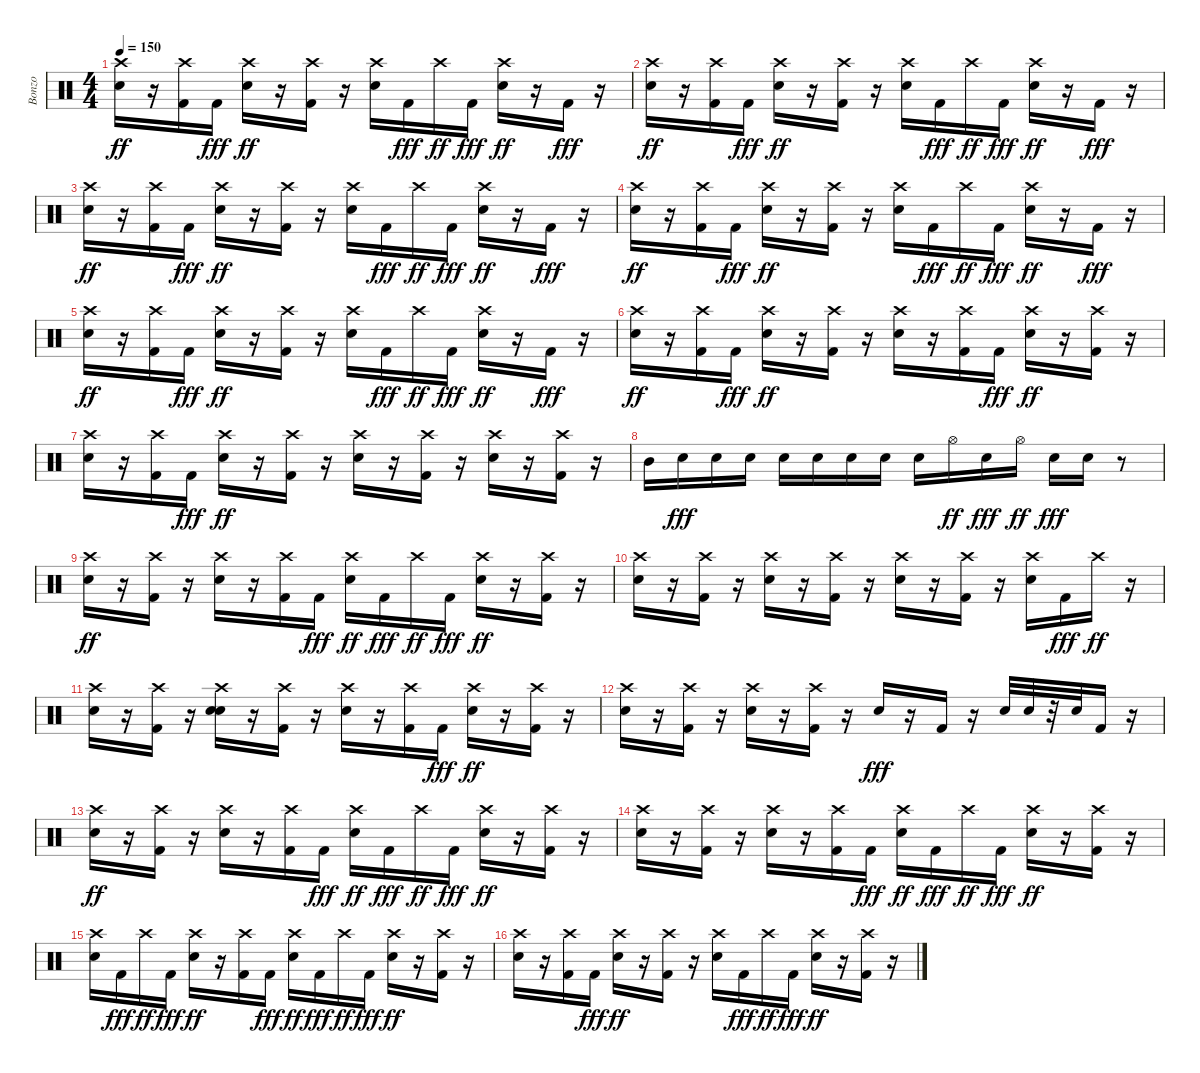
\track ("Bonzo" "Bonzo") {instrument percussion}
\staff {score}
\articulation defaults
\ts (4 4)
\tempo 150
\clef neutral
\ks c
("Snare (hit) 2" "Crash high (hit)").16{dy ff} r.16 ("Kick (hit) 2" "Crash high (hit)").16 "Kick (hit) 2".16{dy fff} ("Snare (hit) 2" "Crash high (hit)").16{dy ff} r.16 ("Kick (hit) 2" "Crash high (hit)").16 r.16 ("Snare (hit) 2" "Crash high (hit)").16 "Kick (hit) 2".16{dy fff} "Crash high (hit)".16{dy ff} "Kick (hit) 2".16{dy fff} ("Snare (hit) 2" "Crash high (hit)").16{dy ff} r.16 "Kick (hit) 2".16{dy fff} r.16 |
("Snare (hit) 2" "Crash high (hit)").16{dy ff} r.16 ("Kick (hit) 2" "Crash high (hit)").16 "Kick (hit) 2".16{dy fff} ("Snare (hit) 2" "Crash high (hit)").16{dy ff} r.16 ("Kick (hit) 2" "Crash high (hit)").16 r.16 ("Snare (hit) 2" "Crash high (hit)").16 "Kick (hit) 2".16{dy fff} "Crash high (hit)".16{dy ff} "Kick (hit) 2".16{dy fff} ("Snare (hit) 2" "Crash high (hit)").16{dy ff} r.16 "Kick (hit) 2".16{dy fff} r.16 |
("Snare (hit) 2" "Crash high (hit)").16{dy ff} r.16 ("Kick (hit) 2" "Crash high (hit)").16 "Kick (hit) 2".16{dy fff} ("Snare (hit) 2" "Crash high (hit)").16{dy ff} r.16 ("Kick (hit) 2" "Crash high (hit)").16 r.16 ("Snare (hit) 2" "Crash high (hit)").16 "Kick (hit) 2".16{dy fff} "Crash high (hit)".16{dy ff} "Kick (hit) 2".16{dy fff} ("Snare (hit) 2" "Crash high (hit)").16{dy ff} r.16 "Kick (hit) 2".16{dy fff} r.16 |
("Snare (hit) 2" "Crash high (hit)").16{dy ff} r.16 ("Kick (hit) 2" "Crash high (hit)").16 "Kick (hit) 2".16{dy fff} ("Snare (hit) 2" "Crash high (hit)").16{dy ff} r.16 ("Kick (hit) 2" "Crash high (hit)").16 r.16 ("Snare (hit) 2" "Crash high (hit)").16 "Kick (hit) 2".16{dy fff} "Crash high (hit)".16{dy ff} "Kick (hit) 2".16{dy fff} ("Snare (hit) 2" "Crash high (hit)").16{dy ff} r.16 "Kick (hit) 2".16{dy fff} r.16 |
("Snare (hit) 2" "Crash high (hit)").16{dy ff} r.16 ("Kick (hit) 2" "Crash high (hit)").16 "Kick (hit) 2".16{dy fff} ("Snare (hit) 2" "Crash high (hit)").16{dy ff} r.16 ("Kick (hit) 2" "Crash high (hit)").16 r.16 ("Snare (hit) 2" "Crash high (hit)").16 "Kick (hit) 2".16{dy fff} "Crash high (hit)".16{dy ff} "Kick (hit) 2".16{dy fff} ("Snare (hit) 2" "Crash high (hit)").16{dy ff} r.16 "Kick (hit) 2".16{dy fff} r.16 |
("Snare (hit) 2" "Crash high (hit)").16{dy ff} r.16 ("Kick (hit) 2" "Crash high (hit)").16 "Kick (hit) 2".16{dy fff} ("Snare (hit) 2" "Crash high (hit)").16{dy ff} r.16 ("Kick (hit) 2" "Crash high (hit)").16 r.16 ("Snare (hit) 2" "Crash high (hit)").16 r.16 ("Kick (hit) 2" "Crash high (hit)").16 "Kick (hit) 2".16{dy fff} ("Snare (hit) 2" "Crash high (hit)").16{dy ff} r.16 ("Kick (hit) 2" "Crash high (hit)").16 r.16 |
("Snare (hit) 2" "Crash high (hit)").16 r.16 ("Kick (hit) 2" "Crash high (hit)").16 "Kick (hit) 2".16{dy fff} ("Snare (hit) 2" "Crash high (hit)").16{dy ff} r.16 ("Kick (hit) 2" "Crash high (hit)").16 r.16 ("Snare (hit) 2" "Crash high (hit)").16 r.16 ("Kick (hit) 2" "Crash high (hit)").16 r.16 ("Snare (hit) 2" "Crash high (hit)").16 r.16 ("Kick (hit) 2" "Crash high (hit)").16 r.16 |
"Mid Tom (hit)".16 "Snare (hit) 2".16{dy fff} "Snare (hit) 2".16 "Snare (hit) 2".16 "Snare (hit) 2".16 "Snare (hit) 2".16 "Snare (hit) 2".16 "Snare (hit) 2".16 "Snare (hit) 2".16 "Hi-Hat (open)".16{dy ff} "Snare (hit) 2".16{dy fff} "Hi-Hat (open)".16{dy ff} "Snare (hit) 2".16{dy fff} "Snare (hit) 2".16 r.8 |
("Snare (hit) 2" "Crash high (hit)").16{dy ff} r.16 ("Kick (hit) 2" "Crash high (hit)").16 r.16 ("Snare (hit) 2" "Crash high (hit)").16 r.16 ("Kick (hit) 2" "Crash high (hit)").16 "Kick (hit) 2".16{dy fff} ("Snare (hit) 2" "Crash high (hit)").16{dy ff} "Kick (hit) 2".16{dy fff} "Crash high (hit)".16{dy ff} "Kick (hit) 2".16{dy fff} ("Snare (hit) 2" "Crash high (hit)").16{dy ff} r.16 ("Kick (hit) 2" "Crash high (hit)").16 r.16 |
("Snare (hit) 2" "Crash high (hit)").16 r.16 ("Kick (hit) 2" "Crash high (hit)").16 r.16 ("Snare (hit) 2" "Crash high (hit)").16 r.16 ("Kick (hit) 2" "Crash high (hit)").16 r.16 ("Snare (hit) 2" "Crash high (hit)").16 r.16 ("Kick (hit) 2" "Crash high (hit)").16 r.16 ("Snare (hit) 2" "Crash high (hit)").16 "Kick (hit) 2".16{dy fff} "Crash high (hit)".16{dy ff} r.16 |
("Snare (hit) 2" "Crash high (hit)").16 r.16 ("Kick (hit) 2" "Crash high (hit)").16 r.16 ("Snare (hit)" "Snare (hit) 2" "Crash high (hit)").16 r.16 ("Kick (hit) 2" "Crash high (hit)").16 r.16 ("Snare (hit) 2" "Crash high (hit)").16 r.16 ("Kick (hit) 2" "Crash high (hit)").16 "Kick (hit) 2".16{dy fff} ("Snare (hit) 2" "Crash high (hit)").16{dy ff} r.16 ("Kick (hit) 2" "Crash high (hit)").16 r.16 |
("Snare (hit) 2" "Crash high (hit)").16 r.16 ("Kick (hit) 2" "Crash high (hit)").16 r.16 ("Snare (hit) 2" "Crash high (hit)").16 r.16 ("Kick (hit) 2" "Crash high (hit)").16 r.16 "Snare (hit) 2".16{dy fff} r.16 "Kick (hit) 2".16 r.16 "Snare (hit) 2".32 "Snare (hit) 2".32 r.32 "Snare (hit) 2".32 "Kick (hit) 2".16 r.16 |
("Snare (hit) 2" "Crash high (hit)").16{dy ff} r.16 ("Kick (hit) 2" "Crash high (hit)").16 r.16 ("Snare (hit) 2" "Crash high (hit)").16 r.16 ("Kick (hit) 2" "Crash high (hit)").16 "Kick (hit) 2".16{dy fff} ("Snare (hit) 2" "Crash high (hit)").16{dy ff} "Kick (hit) 2".16{dy fff} "Crash high (hit)".16{dy ff} "Kick (hit) 2".16{dy fff} ("Snare (hit) 2" "Crash high (hit)").16{dy ff} r.16 ("Kick (hit) 2" "Crash high (hit)").16 r.16 |
("Snare (hit) 2" "Crash high (hit)").16 r.16 ("Kick (hit) 2" "Crash high (hit)").16 r.16 ("Snare (hit) 2" "Crash high (hit)").16 r.16 ("Kick (hit) 2" "Crash high (hit)").16 "Kick (hit) 2".16{dy fff} ("Snare (hit) 2" "Crash high (hit)").16{dy ff} "Kick (hit) 2".16{dy fff} "Crash high (hit)".16{dy ff} "Kick (hit) 2".16{dy fff} ("Snare (hit) 2" "Crash high (hit)").16{dy ff} r.16 ("Kick (hit) 2" "Crash high (hit)").16 r.16 |
("Snare (hit) 2" "Crash high (hit)").16 "Kick (hit) 2".16{dy fff} "Crash high (hit)".16{dy ff} "Kick (hit) 2".16{dy fff} ("Snare (hit) 2" "Crash high (hit)").16{dy ff} r.16 ("Kick (hit) 2" "Crash high (hit)").16 "Kick (hit) 2".16{dy fff} ("Snare (hit) 2" "Crash high (hit)").16{dy ff} "Kick (hit) 2".16{dy fff} "Crash high (hit)".16{dy ff} "Kick (hit) 2".16{dy fff} ("Snare (hit) 2" "Crash high (hit)").16{dy ff} r.16 ("Kick (hit) 2" "Crash high (hit)").16 r.16 |
("Snare (hit) 2" "Crash high (hit)").16 r.16 ("Kick (hit) 2" "Crash high (hit)").16 "Kick (hit) 2".16{dy fff} ("Snare (hit) 2" "Crash high (hit)").16{dy ff} r.16 ("Kick (hit) 2" "Crash high (hit)").16 r.16 ("Snare (hit) 2" "Crash high (hit)").16 "Kick (hit) 2".16{dy fff} "Crash high (hit)".16{dy ff} "Kick (hit) 2".16{dy fff} ("Snare (hit) 2" "Crash high (hit)").16{dy ff} r.16 ("Kick (hit) 2" "Crash high (hit)").16 r.16
